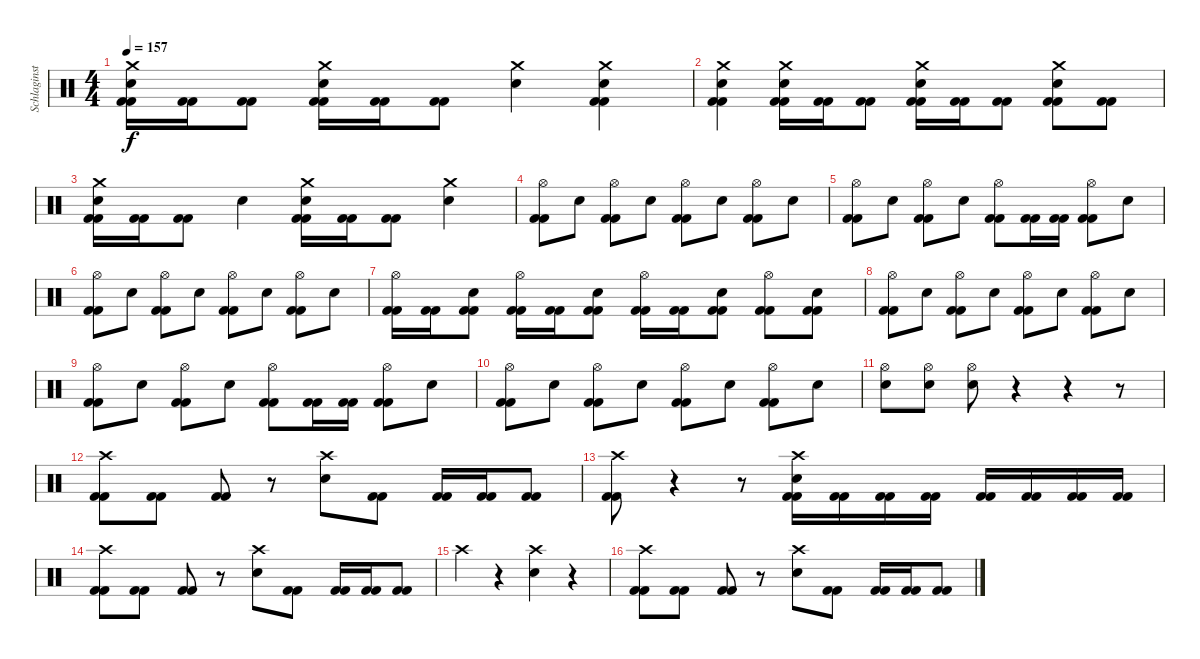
\track ("Schlaginstrumente - Auswahl" "Schlaginst") {instrument percussion}
\staff {score}
\articulation defaults
\ts (4 4)
\tempo 157
\clef neutral
\ks c
("Crash medium (hit)" "Electric Snare (hit)" "Kick (hit) 2" "Kick (hit) 2").16{dy f} ("Kick (hit) 2" "Kick (hit) 2").16 ("Kick (hit) 2" "Kick (hit) 2").8 ("Crash medium (hit)" "Electric Snare (hit)" "Kick (hit) 2" "Kick (hit) 2").16 ("Kick (hit) 2" "Kick (hit) 2").16 ("Kick (hit) 2" "Kick (hit) 2").8 ("Crash medium (hit)" "Electric Snare (hit)").4 ("Crash medium (hit)" "Electric Snare (hit)" "Kick (hit) 2" "Kick (hit) 2").4 |
("Crash medium (hit)" "Electric Snare (hit)" "Kick (hit) 2" "Kick (hit) 2").4 ("Crash medium (hit)" "Electric Snare (hit)" "Kick (hit) 2" "Kick (hit) 2").16 ("Kick (hit) 2" "Kick (hit) 2").16 ("Kick (hit) 2" "Kick (hit) 2").8 ("Crash medium (hit)" "Electric Snare (hit)" "Kick (hit) 2" "Kick (hit) 2").16 ("Kick (hit) 2" "Kick (hit) 2").16 ("Kick (hit) 2" "Kick (hit) 2").8 ("Crash medium (hit)" "Electric Snare (hit)" "Kick (hit) 2" "Kick (hit) 2").8 ("Kick (hit) 2" "Kick (hit) 2").8 |
("Crash medium (hit)" "Electric Snare (hit)" "Kick (hit) 2" "Kick (hit) 2").16 ("Kick (hit) 2" "Kick (hit) 2").16 ("Kick (hit) 2" "Kick (hit) 2").8 "Electric Snare (hit)".4 ("Crash medium (hit)" "Electric Snare (hit)" "Kick (hit) 2" "Kick (hit) 2").16 ("Kick (hit) 2" "Kick (hit) 2").16 ("Kick (hit) 2" "Kick (hit) 2").8 ("Crash medium (hit)" "Electric Snare (hit)").4 |
("Hi-Hat (open)" "Kick (hit) 2" "Kick (hit) 2").8 "Electric Snare (hit)".8 ("Hi-Hat (open)" "Kick (hit) 2" "Kick (hit) 2").8 "Electric Snare (hit)".8 ("Hi-Hat (open)" "Kick (hit) 2" "Kick (hit) 2").8 "Electric Snare (hit)".8 ("Hi-Hat (open)" "Kick (hit) 2" "Kick (hit) 2").8 "Electric Snare (hit)".8 |
("Hi-Hat (open)" "Kick (hit) 2" "Kick (hit) 2").8 "Electric Snare (hit)".8 ("Hi-Hat (open)" "Kick (hit) 2" "Kick (hit) 2").8 "Electric Snare (hit)".8 ("Hi-Hat (open)" "Kick (hit) 2" "Kick (hit) 2").8 ("Kick (hit) 2" "Kick (hit) 2").16 ("Kick (hit) 2" "Kick (hit) 2").16 ("Hi-Hat (open)" "Kick (hit) 2" "Kick (hit) 2").8 "Electric Snare (hit)".8 |
("Hi-Hat (open)" "Kick (hit) 2" "Kick (hit) 2").8 "Electric Snare (hit)".8 ("Hi-Hat (open)" "Kick (hit) 2" "Kick (hit) 2").8 "Electric Snare (hit)".8 ("Hi-Hat (open)" "Kick (hit) 2" "Kick (hit) 2").8 "Electric Snare (hit)".8 ("Hi-Hat (open)" "Kick (hit) 2" "Kick (hit) 2").8 "Electric Snare (hit)".8 |
("Hi-Hat (open)" "Kick (hit) 2" "Kick (hit) 2").16 ("Kick (hit) 2" "Kick (hit) 2").16 ("Electric Snare (hit)" "Kick (hit) 2" "Kick (hit) 2").8 ("Hi-Hat (open)" "Kick (hit) 2" "Kick (hit) 2").16 ("Kick (hit) 2" "Kick (hit) 2").16 ("Electric Snare (hit)" "Kick (hit) 2" "Kick (hit) 2").8 ("Hi-Hat (open)" "Kick (hit) 2" "Kick (hit) 2").16 ("Kick (hit) 2" "Kick (hit) 2").16 ("Electric Snare (hit)" "Kick (hit) 2" "Kick (hit) 2").8 ("Hi-Hat (open)" "Kick (hit) 2" "Kick (hit) 2").8 ("Electric Snare (hit)" "Kick (hit) 2" "Kick (hit) 2").8 |
("Hi-Hat (open)" "Kick (hit) 2" "Kick (hit) 2").8 "Electric Snare (hit)".8 ("Hi-Hat (open)" "Kick (hit) 2" "Kick (hit) 2").8 "Electric Snare (hit)".8 ("Hi-Hat (open)" "Kick (hit) 2" "Kick (hit) 2").8 "Electric Snare (hit)".8 ("Hi-Hat (open)" "Kick (hit) 2" "Kick (hit) 2").8 "Electric Snare (hit)".8 |
("Hi-Hat (open)" "Kick (hit) 2" "Kick (hit) 2").8 "Electric Snare (hit)".8 ("Hi-Hat (open)" "Kick (hit) 2" "Kick (hit) 2").8 "Electric Snare (hit)".8 ("Hi-Hat (open)" "Kick (hit) 2" "Kick (hit) 2").8 ("Kick (hit) 2" "Kick (hit) 2").16 ("Kick (hit) 2" "Kick (hit) 2").16 ("Hi-Hat (open)" "Kick (hit) 2" "Kick (hit) 2").8 "Electric Snare (hit)".8 |
("Hi-Hat (open)" "Kick (hit) 2" "Kick (hit) 2").8 "Electric Snare (hit)".8 ("Hi-Hat (open)" "Kick (hit) 2" "Kick (hit) 2").8 "Electric Snare (hit)".8 ("Hi-Hat (open)" "Kick (hit) 2" "Kick (hit) 2").8 "Electric Snare (hit)".8 ("Hi-Hat (open)" "Kick (hit) 2" "Kick (hit) 2").8 "Electric Snare (hit)".8 |
("Hi-Hat (open)" "Electric Snare (hit)").8 ("Hi-Hat (open)" "Electric Snare (hit)").8 ("Hi-Hat (open)" "Electric Snare (hit)").8 r.4 r.4 r.8 |
("Crash high (hit)" "Kick (hit) 2" "Kick (hit) 2").8 ("Kick (hit) 2" "Kick (hit) 2").8 ("Kick (hit) 2" "Kick (hit) 2").8 r.8 ("Crash high (hit)" "Electric Snare (hit)").8 ("Kick (hit) 2" "Kick (hit) 2").8 ("Kick (hit) 2" "Kick (hit) 2").16 ("Kick (hit) 2" "Kick (hit) 2").16 ("Kick (hit) 2" "Kick (hit) 2").8 |
("Crash high (hit)" "Kick (hit) 2" "Kick (hit) 2").8 r.4 r.8 ("Crash high (hit)" "Electric Snare (hit)" "Kick (hit) 2" "Kick (hit) 2").16 ("Kick (hit) 2" "Kick (hit) 2").16 ("Kick (hit) 2" "Kick (hit) 2").16 ("Kick (hit) 2" "Kick (hit) 2").16 ("Kick (hit) 2" "Kick (hit) 2").16 ("Kick (hit) 2" "Kick (hit) 2").16 ("Kick (hit) 2" "Kick (hit) 2").16 ("Kick (hit) 2" "Kick (hit) 2").16 |
("Crash high (hit)" "Kick (hit) 2" "Kick (hit) 2").8 ("Kick (hit) 2" "Kick (hit) 2").8 ("Kick (hit) 2" "Kick (hit) 2").8 r.8 ("Crash high (hit)" "Electric Snare (hit)").8 ("Kick (hit) 2" "Kick (hit) 2").8 ("Kick (hit) 2" "Kick (hit) 2").16 ("Kick (hit) 2" "Kick (hit) 2").16 ("Kick (hit) 2" "Kick (hit) 2").8 |
"Crash high (hit)".4 r.4 ("Crash high (hit)" "Electric Snare (hit)").4 r.4 |
("Crash high (hit)" "Kick (hit) 2" "Kick (hit) 2").8 ("Kick (hit) 2" "Kick (hit) 2").8 ("Kick (hit) 2" "Kick (hit) 2").8 r.8 ("Crash high (hit)" "Electric Snare (hit)").8 ("Kick (hit) 2" "Kick (hit) 2").8 ("Kick (hit) 2" "Kick (hit) 2").16 ("Kick (hit) 2" "Kick (hit) 2").16 ("Kick (hit) 2" "Kick (hit) 2").8
